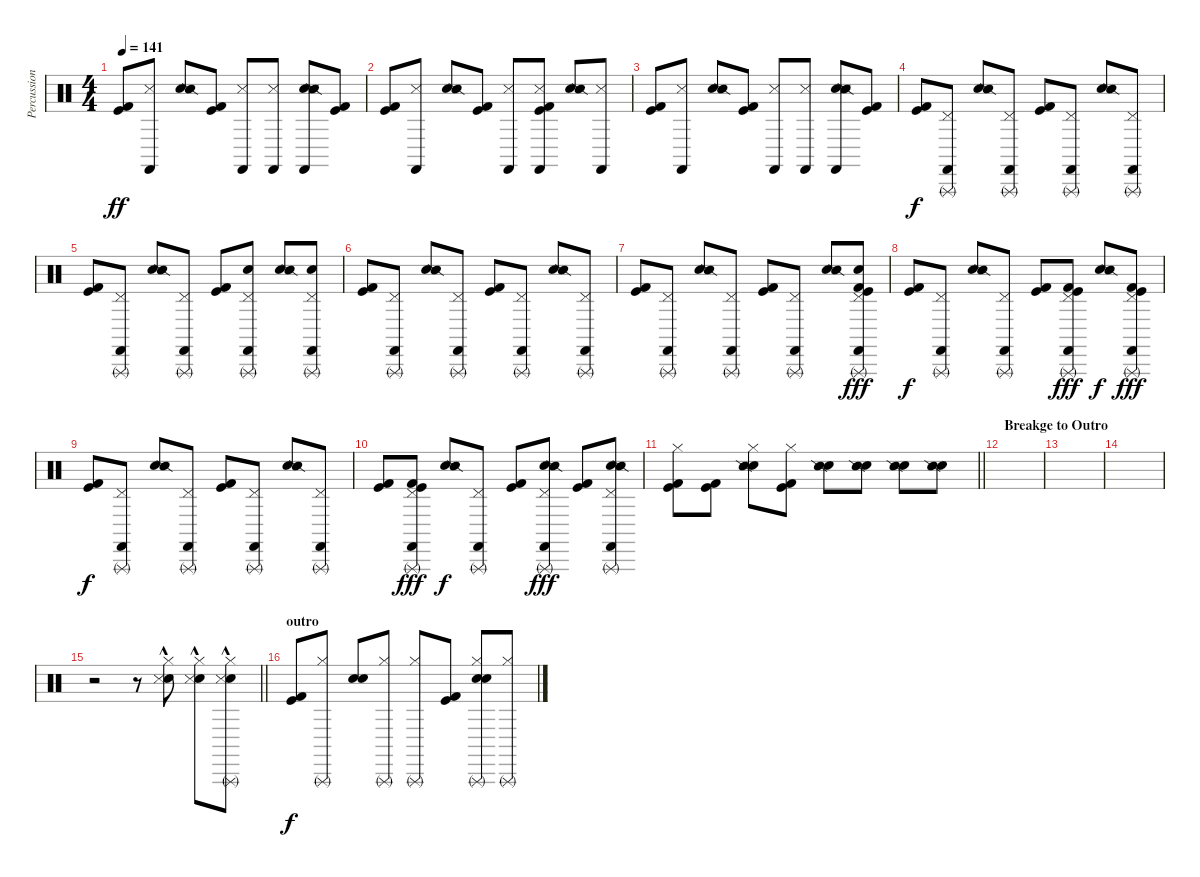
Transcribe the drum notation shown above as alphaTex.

\track ("Percussion" "Percussion") {instrument percussion}
\staff {score}
\articulation defaults
\ts (4 4)
\tempo 141
\clef neutral
\ks c
("Kick (hit)" "Kick (hit) 2").8{dy ff} ("Metronome (hit)" "Castanets (hit)").8 ("Electric Snare (hit)" "Snare (side stick) 2").8 ("Kick (hit)" "Kick (hit) 2").8 ("Metronome (hit)" "Castanets (hit)").8 ("Metronome (hit)" "Castanets (hit)").8 ("Electric Snare (hit)" "Snare (side stick) 2" "Metronome (hit)" "Castanets (hit)").8 ("Kick (hit)" "Kick (hit) 2").8 |
("Kick (hit)" "Kick (hit) 2").8 ("Metronome (hit)" "Castanets (hit)").8 ("Electric Snare (hit)" "Snare (side stick) 2").8 ("Kick (hit)" "Kick (hit) 2").8 ("Metronome (hit)" "Castanets (hit)").8 ("Kick (hit)" "Metronome (hit)" "Castanets (hit)" "Kick (hit) 2").8 ("Electric Snare (hit)" "Snare (side stick) 2").8 ("Metronome (hit)" "Castanets (hit)").8 |
("Kick (hit)" "Kick (hit) 2").8 ("Metronome (hit)" "Castanets (hit)").8 ("Electric Snare (hit)" "Snare (side stick) 2").8 ("Kick (hit)" "Kick (hit) 2").8 ("Metronome (hit)" "Castanets (hit)").8 ("Metronome (hit)" "Castanets (hit)").8 ("Electric Snare (hit)" "Snare (side stick) 2" "Metronome (hit)" "Castanets (hit)").8 ("Kick (hit)" "Kick (hit) 2").8 |
("Kick (hit)" "Kick (hit) 2").8{dy f} ("Pedal Hi-Hat (hit)" "Triangle (rnute)" "Castanets (hit)").8 ("Electric Snare (hit)" "Snare (side stick) 2").8 ("Pedal Hi-Hat (hit)" "Triangle (rnute)" "Castanets (hit)").8 ("Kick (hit)" "Kick (hit) 2").8 ("Pedal Hi-Hat (hit)" "Triangle (rnute)" "Castanets (hit)").8 ("Electric Snare (hit)" "Snare (side stick) 2").8 ("Pedal Hi-Hat (hit)" "Triangle (rnute)" "Castanets (hit)").8 |
("Kick (hit)" "Kick (hit) 2").8 ("Pedal Hi-Hat (hit)" "Triangle (rnute)" "Castanets (hit)").8 ("Electric Snare (hit)" "Snare (side stick) 2").8 ("Pedal Hi-Hat (hit)" "Triangle (rnute)" "Castanets (hit)").8 ("Kick (hit)" "Kick (hit) 2").8 ("Pedal Hi-Hat (hit)" "Electric Snare (hit)" "Triangle (rnute)" "Castanets (hit)").8 ("Electric Snare (hit)" "Snare (side stick) 2").8 ("Pedal Hi-Hat (hit)" "Electric Snare (hit)" "Triangle (rnute)" "Castanets (hit)").8 |
("Kick (hit)" "Kick (hit) 2").8 ("Pedal Hi-Hat (hit)" "Triangle (rnute)" "Castanets (hit)").8 ("Electric Snare (hit)" "Snare (side stick) 2").8 ("Pedal Hi-Hat (hit)" "Triangle (rnute)" "Castanets (hit)").8 ("Kick (hit)" "Kick (hit) 2").8 ("Pedal Hi-Hat (hit)" "Triangle (rnute)" "Castanets (hit)").8 ("Electric Snare (hit)" "Snare (side stick) 2").8 ("Pedal Hi-Hat (hit)" "Triangle (rnute)" "Castanets (hit)").8 |
("Kick (hit)" "Kick (hit) 2").8 ("Pedal Hi-Hat (hit)" "Triangle (rnute)" "Castanets (hit)").8 ("Electric Snare (hit)" "Snare (side stick) 2").8 ("Pedal Hi-Hat (hit)" "Triangle (rnute)" "Castanets (hit)").8 ("Kick (hit)" "Kick (hit) 2").8 ("Pedal Hi-Hat (hit)" "Triangle (rnute)" "Castanets (hit)").8 ("Electric Snare (hit)" "Snare (side stick) 2").8 ("Pedal Hi-Hat (hit)" "Triangle (rnute)" "Kick (hit)" "Kick (hit) 2" "Electric Snare (hit)" "Castanets (hit)").8{dy fff} |
("Kick (hit)" "Kick (hit) 2").8{dy f} ("Pedal Hi-Hat (hit)" "Triangle (rnute)" "Castanets (hit)").8 ("Electric Snare (hit)" "Snare (side stick) 2").8 ("Pedal Hi-Hat (hit)" "Triangle (rnute)" "Castanets (hit)").8 ("Kick (hit)" "Kick (hit) 2").8 ("Pedal Hi-Hat (hit)" "Triangle (rnute)" "Kick (hit) 2" "Kick (hit)" "Castanets (hit)").8{dy fff} ("Electric Snare (hit)" "Snare (side stick) 2").8{dy f} ("Pedal Hi-Hat (hit)" "Triangle (rnute)" "Kick (hit)" "Kick (hit) 2" "Castanets (hit)").8{dy fff} |
("Kick (hit)" "Kick (hit) 2").8{dy f} ("Pedal Hi-Hat (hit)" "Triangle (rnute)" "Castanets (hit)").8 ("Electric Snare (hit)" "Snare (side stick) 2").8 ("Pedal Hi-Hat (hit)" "Triangle (rnute)" "Castanets (hit)").8 ("Kick (hit)" "Kick (hit) 2").8 ("Pedal Hi-Hat (hit)" "Triangle (rnute)" "Castanets (hit)").8 ("Electric Snare (hit)" "Snare (side stick) 2").8 ("Pedal Hi-Hat (hit)" "Triangle (rnute)" "Castanets (hit)").8 |
("Kick (hit)" "Kick (hit) 2").8 ("Pedal Hi-Hat (hit)" "Triangle (rnute)" "Kick (hit) 2" "Kick (hit)" "Castanets (hit)").8{dy fff} ("Electric Snare (hit)" "Snare (side stick) 2").8{dy f} ("Pedal Hi-Hat (hit)" "Triangle (rnute)" "Castanets (hit)").8 ("Kick (hit)" "Kick (hit) 2").8 ("Pedal Hi-Hat (hit)" "Triangle (rnute)" "Electric Snare (hit)" "Snare (side stick) 2" "Castanets (hit)").8{dy fff} ("Kick (hit)" "Kick (hit) 2").8 ("Pedal Hi-Hat (hit)" "Triangle (rnute)" "Electric Snare (hit)" "Snare (side stick) 2" "Castanets (hit)").8 |
\barLineRight lightlight
("Kick (hit)" "Kick (hit) 2" "Hi-Hat (closed)").8 ("Kick (hit)" "Kick (hit) 2").8 ("Electric Snare (hit)" "Snare (side stick) 2" "Hi-Hat (closed)").8 ("Kick (hit)" "Kick (hit) 2" "Hi-Hat (closed)").8 ("Electric Snare (hit)" "Snare (side stick) 2").8 ("Electric Snare (hit)" "Snare (side stick) 2").8 ("Electric Snare (hit)" "Snare (side stick) 2").8 ("Electric Snare (hit)" "Snare (side stick) 2").8 |
\section ("" "Breakge to Outro")
|
|
|
\barLineRight lightlight
r.2 r.8 ("Electric Snare (hit)"{hac} "Hi-Hat (closed)"{hac} "Metronome (hit)"{hac}).8 ("Electric Snare (hit)"{hac} "Hi-Hat (closed)"{hac} "Metronome (hit)"{hac}).8 ("Electric Snare (hit)"{hac} "Hi-Hat (closed)"{hac} "Metronome (hit)"{hac} "Triangle (rnute)"{hac}).8 |
\section ("" "outro")
("Kick (hit)" "Kick (hit) 2").8{dy f} ("Hi-Hat (closed)" "Triangle (rnute)").8 ("Snare (hit) 2" "Electric Snare (hit)").8 ("Hi-Hat (closed)" "Triangle (rnute)").8 ("Hi-Hat (closed)" "Triangle (rnute)").8 ("Kick (hit)" "Kick (hit) 2").8 ("Snare (hit) 2" "Electric Snare (hit)" "Hi-Hat (closed)" "Triangle (rnute)").8 ("Hi-Hat (closed)" "Triangle (rnute)").8
